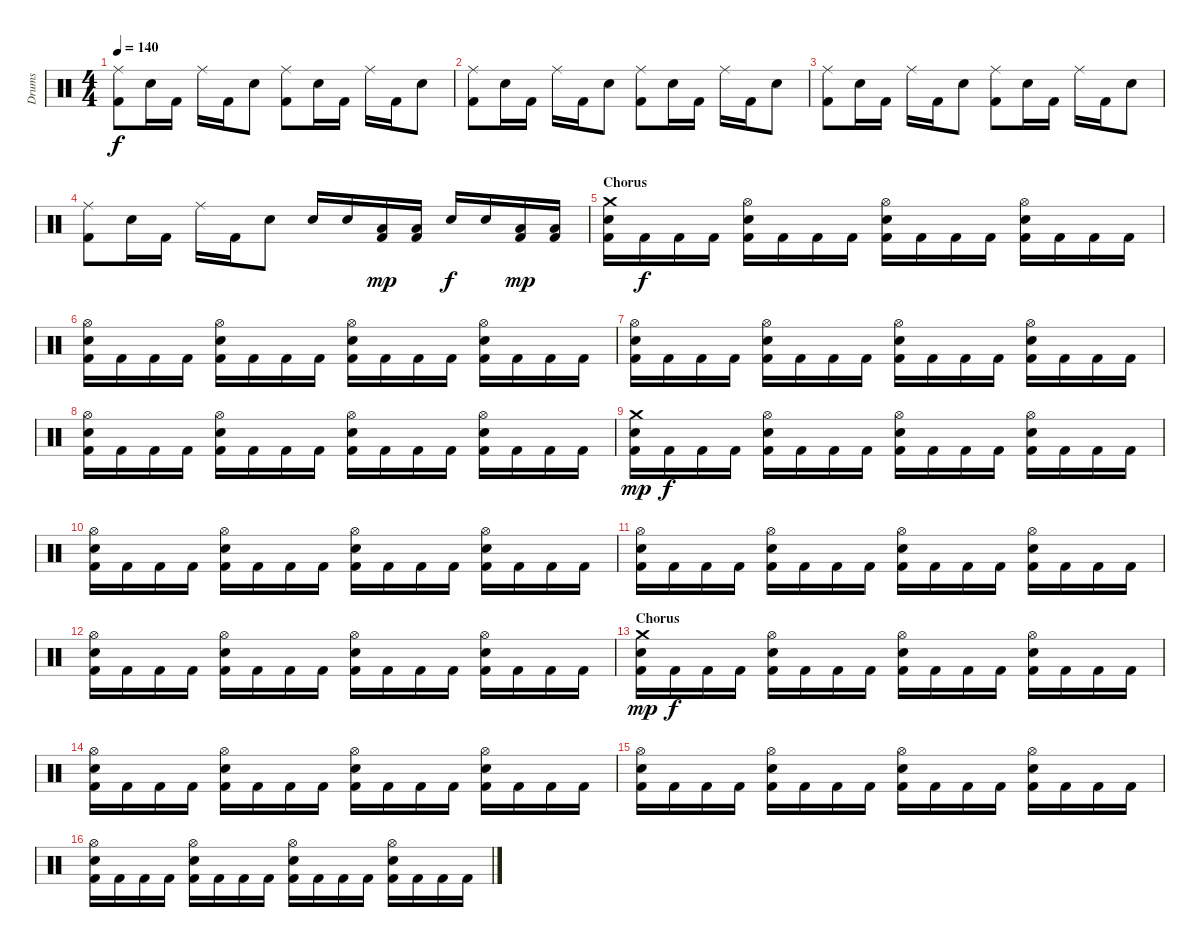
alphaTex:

\track ("Drums" "Drums") {instrument percussion}
\staff {score}
\articulation defaults
\ts (4 4)
\tempo 140
\clef neutral
\ks c
("Ride (middle)" "Kick (hit) 2").8{dy f} "Electric Snare (hit)".16 "Kick (hit) 2".16 "Ride (middle)".16 "Kick (hit) 2".16 "Electric Snare (hit)".8 ("Ride (middle)" "Kick (hit) 2").8 "Electric Snare (hit)".16 "Kick (hit) 2".16 "Ride (middle)".16 "Kick (hit) 2".16 "Electric Snare (hit)".8 |
("Ride (middle)" "Kick (hit) 2").8 "Electric Snare (hit)".16 "Kick (hit) 2".16 "Ride (middle)".16 "Kick (hit) 2".16 "Electric Snare (hit)".8 ("Ride (middle)" "Kick (hit) 2").8 "Electric Snare (hit)".16 "Kick (hit) 2".16 "Ride (middle)".16 "Kick (hit) 2".16 "Electric Snare (hit)".8 |
("Ride (middle)" "Kick (hit) 2").8 "Electric Snare (hit)".16 "Kick (hit) 2".16 "Ride (middle)".16 "Kick (hit) 2".16 "Electric Snare (hit)".8 ("Ride (middle)" "Kick (hit) 2").8 "Electric Snare (hit)".16 "Kick (hit) 2".16 "Ride (middle)".16 "Kick (hit) 2".16 "Electric Snare (hit)".8 |
("Ride (middle)" "Kick (hit) 2").8 "Electric Snare (hit)".16 "Kick (hit) 2".16 "Ride (middle)".16 "Kick (hit) 2".16 "Electric Snare (hit)".8 "Electric Snare (hit)".16 "Electric Snare (hit)".16 ("Low Floor Tom (hit)" "Kick (hit) 2").16{dy mp} ("Low Floor Tom (hit)" "Kick (hit) 2").16 "Electric Snare (hit)".16{dy f} "Electric Snare (hit)".16 ("Low Floor Tom (hit)" "Kick (hit) 2").16{dy mp} ("Low Floor Tom (hit)" "Kick (hit) 2").16 |
\section ("" "Chorus")
("Crash medium (hit)" "Electric Snare (hit)" "Kick (hit) 2").16 "Kick (hit) 2".16{dy f} "Kick (hit) 2".16 "Kick (hit) 2".16 ("Hi-Hat (open)" "Electric Snare (hit)" "Kick (hit) 2").16 "Kick (hit) 2".16 "Kick (hit) 2".16 "Kick (hit) 2".16 ("Hi-Hat (open)" "Electric Snare (hit)" "Kick (hit) 2").16 "Kick (hit) 2".16 "Kick (hit) 2".16 "Kick (hit) 2".16 ("Hi-Hat (open)" "Electric Snare (hit)" "Kick (hit) 2").16 "Kick (hit) 2".16 "Kick (hit) 2".16 "Kick (hit) 2".16 |
("Hi-Hat (open)" "Electric Snare (hit)" "Kick (hit) 2").16 "Kick (hit) 2".16 "Kick (hit) 2".16 "Kick (hit) 2".16 ("Hi-Hat (open)" "Electric Snare (hit)" "Kick (hit) 2").16 "Kick (hit) 2".16 "Kick (hit) 2".16 "Kick (hit) 2".16 ("Hi-Hat (open)" "Electric Snare (hit)" "Kick (hit) 2").16 "Kick (hit) 2".16 "Kick (hit) 2".16 "Kick (hit) 2".16 ("Hi-Hat (open)" "Electric Snare (hit)" "Kick (hit) 2").16 "Kick (hit) 2".16 "Kick (hit) 2".16 "Kick (hit) 2".16 |
("Hi-Hat (open)" "Electric Snare (hit)" "Kick (hit) 2").16 "Kick (hit) 2".16 "Kick (hit) 2".16 "Kick (hit) 2".16 ("Hi-Hat (open)" "Electric Snare (hit)" "Kick (hit) 2").16 "Kick (hit) 2".16 "Kick (hit) 2".16 "Kick (hit) 2".16 ("Hi-Hat (open)" "Electric Snare (hit)" "Kick (hit) 2").16 "Kick (hit) 2".16 "Kick (hit) 2".16 "Kick (hit) 2".16 ("Hi-Hat (open)" "Electric Snare (hit)" "Kick (hit) 2").16 "Kick (hit) 2".16 "Kick (hit) 2".16 "Kick (hit) 2".16 |
("Hi-Hat (open)" "Electric Snare (hit)" "Kick (hit) 2").16 "Kick (hit) 2".16 "Kick (hit) 2".16 "Kick (hit) 2".16 ("Hi-Hat (open)" "Electric Snare (hit)" "Kick (hit) 2").16 "Kick (hit) 2".16 "Kick (hit) 2".16 "Kick (hit) 2".16 ("Hi-Hat (open)" "Electric Snare (hit)" "Kick (hit) 2").16 "Kick (hit) 2".16 "Kick (hit) 2".16 "Kick (hit) 2".16 ("Hi-Hat (open)" "Electric Snare (hit)" "Kick (hit) 2").16 "Kick (hit) 2".16 "Kick (hit) 2".16 "Kick (hit) 2".16 |
("Crash medium (hit)" "Electric Snare (hit)" "Kick (hit) 2").16{dy mp} "Kick (hit) 2".16{dy f} "Kick (hit) 2".16 "Kick (hit) 2".16 ("Hi-Hat (open)" "Electric Snare (hit)" "Kick (hit) 2").16 "Kick (hit) 2".16 "Kick (hit) 2".16 "Kick (hit) 2".16 ("Hi-Hat (open)" "Electric Snare (hit)" "Kick (hit) 2").16 "Kick (hit) 2".16 "Kick (hit) 2".16 "Kick (hit) 2".16 ("Hi-Hat (open)" "Electric Snare (hit)" "Kick (hit) 2").16 "Kick (hit) 2".16 "Kick (hit) 2".16 "Kick (hit) 2".16 |
("Hi-Hat (open)" "Electric Snare (hit)" "Kick (hit) 2").16 "Kick (hit) 2".16 "Kick (hit) 2".16 "Kick (hit) 2".16 ("Hi-Hat (open)" "Electric Snare (hit)" "Kick (hit) 2").16 "Kick (hit) 2".16 "Kick (hit) 2".16 "Kick (hit) 2".16 ("Hi-Hat (open)" "Electric Snare (hit)" "Kick (hit) 2").16 "Kick (hit) 2".16 "Kick (hit) 2".16 "Kick (hit) 2".16 ("Hi-Hat (open)" "Electric Snare (hit)" "Kick (hit) 2").16 "Kick (hit) 2".16 "Kick (hit) 2".16 "Kick (hit) 2".16 |
("Hi-Hat (open)" "Electric Snare (hit)" "Kick (hit) 2").16 "Kick (hit) 2".16 "Kick (hit) 2".16 "Kick (hit) 2".16 ("Hi-Hat (open)" "Electric Snare (hit)" "Kick (hit) 2").16 "Kick (hit) 2".16 "Kick (hit) 2".16 "Kick (hit) 2".16 ("Hi-Hat (open)" "Electric Snare (hit)" "Kick (hit) 2").16 "Kick (hit) 2".16 "Kick (hit) 2".16 "Kick (hit) 2".16 ("Hi-Hat (open)" "Electric Snare (hit)" "Kick (hit) 2").16 "Kick (hit) 2".16 "Kick (hit) 2".16 "Kick (hit) 2".16 |
("Hi-Hat (open)" "Electric Snare (hit)" "Kick (hit) 2").16 "Kick (hit) 2".16 "Kick (hit) 2".16 "Kick (hit) 2".16 ("Hi-Hat (open)" "Electric Snare (hit)" "Kick (hit) 2").16 "Kick (hit) 2".16 "Kick (hit) 2".16 "Kick (hit) 2".16 ("Hi-Hat (open)" "Electric Snare (hit)" "Kick (hit) 2").16 "Kick (hit) 2".16 "Kick (hit) 2".16 "Kick (hit) 2".16 ("Hi-Hat (open)" "Electric Snare (hit)" "Kick (hit) 2").16 "Kick (hit) 2".16 "Kick (hit) 2".16 "Kick (hit) 2".16 |
\section ("" "Chorus")
("Crash medium (hit)" "Electric Snare (hit)" "Kick (hit) 2").16{dy mp} "Kick (hit) 2".16{dy f} "Kick (hit) 2".16 "Kick (hit) 2".16 ("Hi-Hat (open)" "Electric Snare (hit)" "Kick (hit) 2").16 "Kick (hit) 2".16 "Kick (hit) 2".16 "Kick (hit) 2".16 ("Hi-Hat (open)" "Electric Snare (hit)" "Kick (hit) 2").16 "Kick (hit) 2".16 "Kick (hit) 2".16 "Kick (hit) 2".16 ("Hi-Hat (open)" "Electric Snare (hit)" "Kick (hit) 2").16 "Kick (hit) 2".16 "Kick (hit) 2".16 "Kick (hit) 2".16 |
("Hi-Hat (open)" "Electric Snare (hit)" "Kick (hit) 2").16 "Kick (hit) 2".16 "Kick (hit) 2".16 "Kick (hit) 2".16 ("Hi-Hat (open)" "Electric Snare (hit)" "Kick (hit) 2").16 "Kick (hit) 2".16 "Kick (hit) 2".16 "Kick (hit) 2".16 ("Hi-Hat (open)" "Electric Snare (hit)" "Kick (hit) 2").16 "Kick (hit) 2".16 "Kick (hit) 2".16 "Kick (hit) 2".16 ("Hi-Hat (open)" "Electric Snare (hit)" "Kick (hit) 2").16 "Kick (hit) 2".16 "Kick (hit) 2".16 "Kick (hit) 2".16 |
("Hi-Hat (open)" "Electric Snare (hit)" "Kick (hit) 2").16 "Kick (hit) 2".16 "Kick (hit) 2".16 "Kick (hit) 2".16 ("Hi-Hat (open)" "Electric Snare (hit)" "Kick (hit) 2").16 "Kick (hit) 2".16 "Kick (hit) 2".16 "Kick (hit) 2".16 ("Hi-Hat (open)" "Electric Snare (hit)" "Kick (hit) 2").16 "Kick (hit) 2".16 "Kick (hit) 2".16 "Kick (hit) 2".16 ("Hi-Hat (open)" "Electric Snare (hit)" "Kick (hit) 2").16 "Kick (hit) 2".16 "Kick (hit) 2".16 "Kick (hit) 2".16 |
("Hi-Hat (open)" "Electric Snare (hit)" "Kick (hit) 2").16 "Kick (hit) 2".16 "Kick (hit) 2".16 "Kick (hit) 2".16 ("Hi-Hat (open)" "Electric Snare (hit)" "Kick (hit) 2").16 "Kick (hit) 2".16 "Kick (hit) 2".16 "Kick (hit) 2".16 ("Hi-Hat (open)" "Electric Snare (hit)" "Kick (hit) 2").16 "Kick (hit) 2".16 "Kick (hit) 2".16 "Kick (hit) 2".16 ("Hi-Hat (open)" "Electric Snare (hit)" "Kick (hit) 2").16 "Kick (hit) 2".16 "Kick (hit) 2".16 "Kick (hit) 2".16
